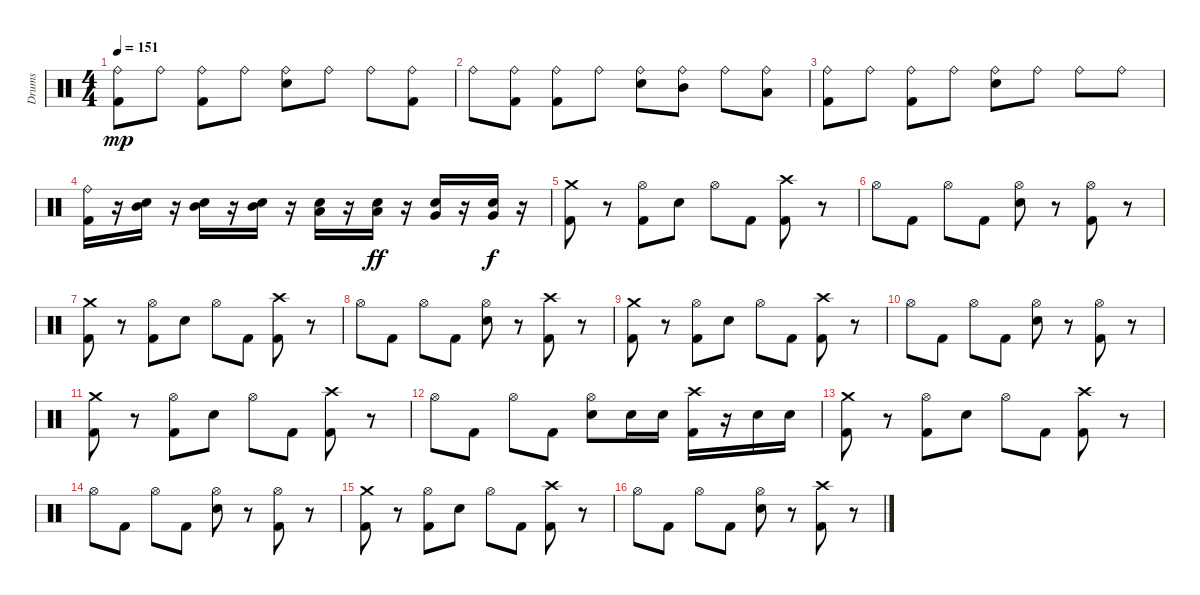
\track ("Drums" "Drums") {instrument percussion}
\staff {score}
\articulation defaults
\ts (4 4)
\tempo 151
\clef neutral
\ks c
("Ride (bell)" "Kick (hit) 2").8{dy mp} "Ride (bell)".8 ("Ride (bell)" "Kick (hit) 2").8 "Ride (bell)".8 ("Ride (bell)" "Snare (hit) 2").8 "Ride (bell)".8 "Ride (bell)".8 ("Ride (bell)" "Kick (hit) 2").8 |
"Ride (bell)".8 ("Ride (bell)" "Kick (hit) 2").8 ("Ride (bell)" "Kick (hit) 2").8 "Ride (bell)".8 ("Ride (bell)" "Snare (hit) 2").8 ("Ride (bell)" "Mid Tom (hit)").8 "Ride (bell)".8 ("Ride (bell)" "Low Tom (hit)").8 |
("Ride (bell)" "Kick (hit) 2").8 "Ride (bell)".8 ("Ride (bell)" "Kick (hit) 2").8 "Ride (bell)".8 ("Ride (bell)" "Snare (hit) 2").8 "Ride (bell)".8 "Ride (bell)".8 "Ride (bell)".8 |
("Ride (bell)" "Kick (hit) 2").16 r.16 ("Mid Tom (hit)" "Snare (hit) 2").16 r.16 ("Mid Tom (hit)" "Snare (hit) 2").16 r.16 ("Mid Tom (hit)" "Snare (hit) 2").16 r.16 ("Low Tom (hit)" "Snare (hit) 2").16 r.16 ("Low Tom (hit)" "Snare (hit) 2").16{dy ff} r.16 ("Very Low Tom (hit)" "Snare (hit) 2").16 r.16 ("Very Low Tom (hit)" "Snare (hit) 2").16{dy f} r.16 |
("Crash medium (hit)" "Kick (hit) 2").8 r.8 ("Hi-Hat (open)" "Kick (hit) 2").8 "Snare (hit) 2".8 "Hi-Hat (open)".8 "Kick (hit) 2".8 ("Crash high (hit)" "Kick (hit) 2").8 r.8 |
"Hi-Hat (open)".8 "Kick (hit) 2".8 "Hi-Hat (open)".8 "Kick (hit) 2".8 ("Hi-Hat (open)" "Snare (hit) 2").8 r.8 ("Hi-Hat (open)" "Kick (hit) 2").8 r.8 |
("Crash medium (hit)" "Kick (hit) 2").8 r.8 ("Hi-Hat (open)" "Kick (hit) 2").8 "Snare (hit) 2".8 "Hi-Hat (open)".8 "Kick (hit) 2".8 ("Crash high (hit)" "Kick (hit) 2").8 r.8 |
"Hi-Hat (open)".8 "Kick (hit) 2".8 "Hi-Hat (open)".8 "Kick (hit) 2".8 ("Hi-Hat (open)" "Snare (hit) 2").8 r.8 ("Crash high (hit)" "Kick (hit) 2").8 r.8 |
("Crash medium (hit)" "Kick (hit) 2").8 r.8 ("Hi-Hat (open)" "Kick (hit) 2").8 "Snare (hit) 2".8 "Hi-Hat (open)".8 "Kick (hit) 2".8 ("Crash high (hit)" "Kick (hit) 2").8 r.8 |
"Hi-Hat (open)".8 "Kick (hit) 2".8 "Hi-Hat (open)".8 "Kick (hit) 2".8 ("Hi-Hat (open)" "Snare (hit) 2").8 r.8 ("Hi-Hat (open)" "Kick (hit) 2").8 r.8 |
("Crash medium (hit)" "Kick (hit) 2").8 r.8 ("Hi-Hat (open)" "Kick (hit) 2").8 "Snare (hit) 2".8 "Hi-Hat (open)".8 "Kick (hit) 2".8 ("Crash high (hit)" "Kick (hit) 2").8 r.8 |
"Hi-Hat (open)".8 "Kick (hit) 2".8 "Hi-Hat (open)".8 "Kick (hit) 2".8 ("Hi-Hat (open)" "Snare (hit) 2").8 "Snare (hit) 2".16 "Snare (hit) 2".16 ("Crash high (hit)" "Kick (hit) 2").16 r.16 "Snare (hit) 2".16 "Snare (hit) 2".16 |
("Crash medium (hit)" "Kick (hit) 2").8 r.8 ("Hi-Hat (open)" "Kick (hit) 2").8 "Snare (hit) 2".8 "Hi-Hat (open)".8 "Kick (hit) 2".8 ("Crash high (hit)" "Kick (hit) 2").8 r.8 |
"Hi-Hat (open)".8 "Kick (hit) 2".8 "Hi-Hat (open)".8 "Kick (hit) 2".8 ("Hi-Hat (open)" "Snare (hit) 2").8 r.8 ("Hi-Hat (open)" "Kick (hit) 2").8 r.8 |
("Crash medium (hit)" "Kick (hit) 2").8 r.8 ("Hi-Hat (open)" "Kick (hit) 2").8 "Snare (hit) 2".8 "Hi-Hat (open)".8 "Kick (hit) 2".8 ("Crash high (hit)" "Kick (hit) 2").8 r.8 |
"Hi-Hat (open)".8 "Kick (hit) 2".8 "Hi-Hat (open)".8 "Kick (hit) 2".8 ("Hi-Hat (open)" "Snare (hit) 2").8 r.8 ("Crash high (hit)" "Kick (hit) 2").8 r.8
